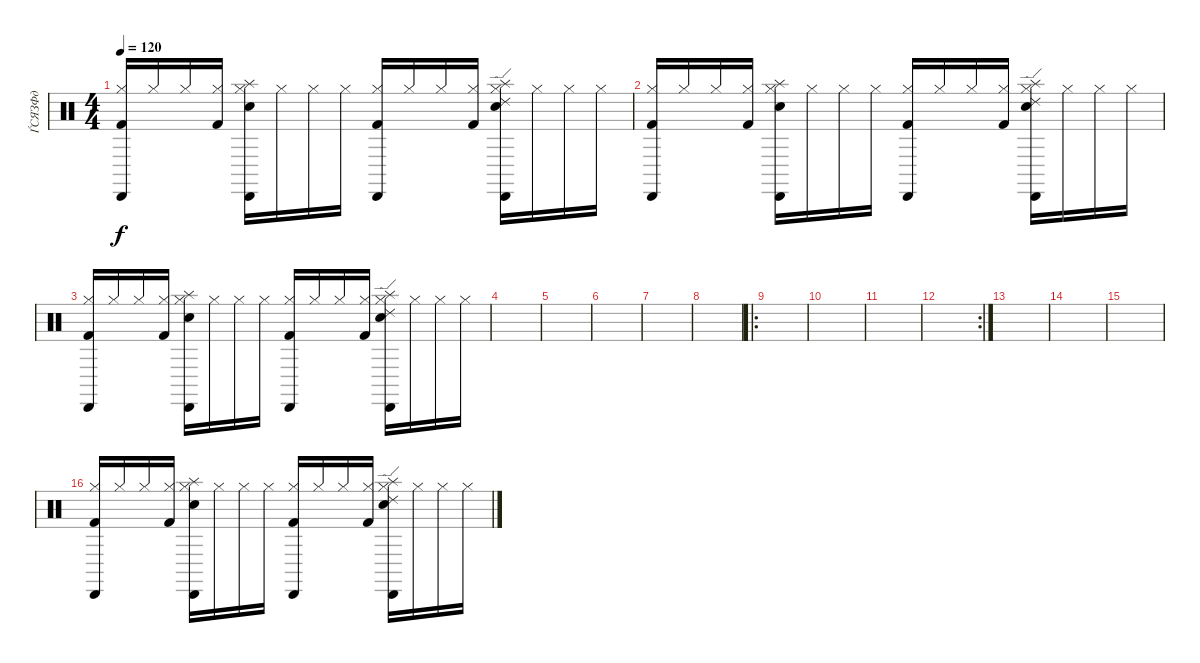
\track ("ЃСЯЗФд" "ЃСЯЗФд") {instrument percussion}
\staff {score}
\articulation defaults
\ts (4 4)
\tempo 120
\clef neutral
\ks aminor
("Hi-Hat (closed)" "Kick (hit) 2" "Cabasa (hit)").16{dy f volume 12} "Hi-Hat (closed)".16 "Hi-Hat (closed)".16 ("Hi-Hat (closed)" "Kick (hit) 2").16 ("Hi-Hat (closed)" "Snare (hit) 2" "Cabasa (hit)" "Splash (hit)").16 "Hi-Hat (closed)".16 "Hi-Hat (closed)".16 "Hi-Hat (closed)".16 ("Hi-Hat (closed)" "Kick (hit) 2" "Cabasa (hit)").16 "Hi-Hat (closed)".16 "Hi-Hat (closed)".16 ("Hi-Hat (closed)" "Kick (hit) 2").16 ("Hi-Hat (closed)" "Snare (hit) 2" "Cabasa (hit)" "Ride (edge) 2" "Splash (hit)").16 "Hi-Hat (closed)".16 "Hi-Hat (closed)".16 "Hi-Hat (closed)".16 |
("Hi-Hat (closed)" "Kick (hit) 2" "Cabasa (hit)").16{volume 12} "Hi-Hat (closed)".16 "Hi-Hat (closed)".16 ("Hi-Hat (closed)" "Kick (hit) 2").16 ("Hi-Hat (closed)" "Snare (hit) 2" "Cabasa (hit)" "Splash (hit)").16 "Hi-Hat (closed)".16 "Hi-Hat (closed)".16 "Hi-Hat (closed)".16 ("Hi-Hat (closed)" "Kick (hit) 2" "Cabasa (hit)").16 "Hi-Hat (closed)".16 "Hi-Hat (closed)".16 ("Hi-Hat (closed)" "Kick (hit) 2").16 ("Hi-Hat (closed)" "Snare (hit) 2" "Cabasa (hit)" "Ride (edge) 2" "Splash (hit)").16 "Hi-Hat (closed)".16 "Hi-Hat (closed)".16 "Hi-Hat (closed)".16 |
("Hi-Hat (closed)" "Kick (hit) 2" "Cabasa (hit)").16{volume 12} "Hi-Hat (closed)".16 "Hi-Hat (closed)".16 ("Hi-Hat (closed)" "Kick (hit) 2").16 ("Hi-Hat (closed)" "Snare (hit) 2" "Cabasa (hit)" "Splash (hit)").16 "Hi-Hat (closed)".16 "Hi-Hat (closed)".16 "Hi-Hat (closed)".16 ("Hi-Hat (closed)" "Kick (hit) 2" "Cabasa (hit)").16 "Hi-Hat (closed)".16 "Hi-Hat (closed)".16 ("Hi-Hat (closed)" "Kick (hit) 2").16 ("Hi-Hat (closed)" "Snare (hit) 2" "Cabasa (hit)" "Ride (edge) 2" "Splash (hit)").16 "Hi-Hat (closed)".16 "Hi-Hat (closed)".16 "Hi-Hat (closed)".16 |
|
|
|
|
|
\ro
|
|
|
\rc 2
|
|
|
|
("Hi-Hat (closed)" "Kick (hit) 2" "Cabasa (hit)").16{volume 12} "Hi-Hat (closed)".16 "Hi-Hat (closed)".16 ("Hi-Hat (closed)" "Kick (hit) 2").16 ("Hi-Hat (closed)" "Snare (hit) 2" "Cabasa (hit)" "Splash (hit)").16 "Hi-Hat (closed)".16 "Hi-Hat (closed)".16 "Hi-Hat (closed)".16 ("Hi-Hat (closed)" "Kick (hit) 2" "Cabasa (hit)").16 "Hi-Hat (closed)".16 "Hi-Hat (closed)".16 ("Hi-Hat (closed)" "Kick (hit) 2").16 ("Hi-Hat (closed)" "Snare (hit) 2" "Cabasa (hit)" "Ride (edge) 2" "Splash (hit)").16 "Hi-Hat (closed)".16 "Hi-Hat (closed)".16 "Hi-Hat (closed)".16
